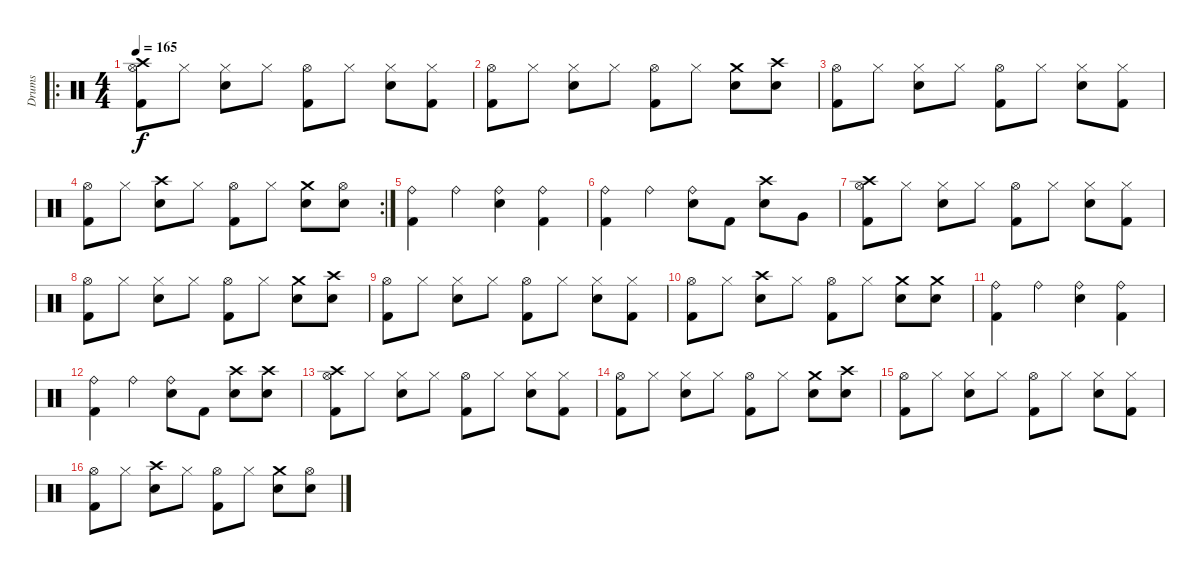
\track ("Drums" "Drums") {instrument percussion}
\staff {score}
\articulation defaults
\ro
\ts (4 4)
\tempo 165
\clef neutral
\ks c
("Crash high (hit)" "Hi-Hat (open)" "Kick (hit) 2").8{dy f} "Hi-Hat (closed)".8 ("Hi-Hat (closed)" "Snare (hit) 2").8 "Hi-Hat (closed)".8 ("Hi-Hat (open)" "Kick (hit) 2").8 "Hi-Hat (closed)".8 ("Hi-Hat (closed)" "Snare (hit) 2").8 ("Hi-Hat (closed)" "Kick (hit) 2").8 |
("Hi-Hat (open)" "Kick (hit) 2").8 "Hi-Hat (closed)".8 ("Hi-Hat (closed)" "Snare (hit) 2").8 "Hi-Hat (closed)".8 ("Hi-Hat (open)" "Kick (hit) 2").8 "Hi-Hat (closed)".8 ("Crash medium (hit)" "Snare (hit) 2").8 ("Crash high (hit)" "Snare (hit) 2").8 |
("Hi-Hat (open)" "Kick (hit) 2").8 "Hi-Hat (closed)".8 ("Hi-Hat (closed)" "Snare (hit) 2").8 "Hi-Hat (closed)".8 ("Hi-Hat (open)" "Kick (hit) 2").8 "Hi-Hat (closed)".8 ("Hi-Hat (closed)" "Snare (hit) 2").8 ("Hi-Hat (closed)" "Kick (hit) 2").8 |
\rc 2
("Hi-Hat (open)" "Kick (hit) 2").8 "Hi-Hat (closed)".8 ("Crash high (hit)" "Snare (hit) 2").8 "Hi-Hat (closed)".8 ("Hi-Hat (open)" "Kick (hit) 2").8 "Hi-Hat (closed)".8 ("Crash medium (hit)" "Snare (hit) 2").8 ("Hi-Hat (open)" "Snare (hit) 2").8 |
("Ride (bell)" "Kick (hit) 2").4 "Ride (bell)".4 ("Ride (bell)" "Snare (hit) 2").4 ("Ride (bell)" "Kick (hit) 2").4 |
("Ride (bell)" "Kick (hit) 2").4 "Ride (bell)".4 ("Ride (bell)" "Snare (hit) 2").8 "Kick (hit) 2".8 ("Crash high (hit)" "Snare (hit) 2").8 "Very Low Tom (hit)".8 |
("Crash high (hit)" "Hi-Hat (open)" "Kick (hit) 2").8 "Hi-Hat (closed)".8 ("Hi-Hat (closed)" "Snare (hit) 2").8 "Hi-Hat (closed)".8 ("Hi-Hat (open)" "Kick (hit) 2").8 "Hi-Hat (closed)".8 ("Hi-Hat (closed)" "Snare (hit) 2").8 ("Hi-Hat (closed)" "Kick (hit) 2").8 |
("Hi-Hat (open)" "Kick (hit) 2").8 "Hi-Hat (closed)".8 ("Hi-Hat (closed)" "Snare (hit) 2").8 "Hi-Hat (closed)".8 ("Hi-Hat (open)" "Kick (hit) 2").8 "Hi-Hat (closed)".8 ("Crash medium (hit)" "Snare (hit) 2").8 ("Crash high (hit)" "Snare (hit) 2").8 |
("Hi-Hat (open)" "Kick (hit) 2").8 "Hi-Hat (closed)".8 ("Hi-Hat (closed)" "Snare (hit) 2").8 "Hi-Hat (closed)".8 ("Hi-Hat (open)" "Kick (hit) 2").8 "Hi-Hat (closed)".8 ("Hi-Hat (closed)" "Snare (hit) 2").8 ("Hi-Hat (closed)" "Kick (hit) 2").8 |
("Hi-Hat (open)" "Kick (hit) 2").8 "Hi-Hat (closed)".8 ("Crash high (hit)" "Snare (hit) 2").8 "Hi-Hat (closed)".8 ("Hi-Hat (open)" "Kick (hit) 2").8 "Hi-Hat (closed)".8 ("Crash medium (hit)" "Snare (hit) 2").8 ("Crash medium (hit)" "Snare (hit) 2").8 |
("Ride (bell)" "Kick (hit) 2").4 "Ride (bell)".4 ("Ride (bell)" "Snare (hit) 2").4 ("Ride (bell)" "Kick (hit) 2").4 |
("Ride (bell)" "Kick (hit) 2").4 "Ride (bell)".4 ("Ride (bell)" "Snare (hit) 2").8 "Kick (hit) 2".8 ("Crash high (hit)" "Snare (hit) 2").8 ("Crash high (hit)" "Snare (hit) 2").8 |
("Crash high (hit)" "Hi-Hat (open)" "Kick (hit) 2").8 "Hi-Hat (closed)".8 ("Hi-Hat (closed)" "Snare (hit) 2").8 "Hi-Hat (closed)".8 ("Hi-Hat (open)" "Kick (hit) 2").8 "Hi-Hat (closed)".8 ("Hi-Hat (closed)" "Snare (hit) 2").8 ("Hi-Hat (closed)" "Kick (hit) 2").8 |
("Hi-Hat (open)" "Kick (hit) 2").8 "Hi-Hat (closed)".8 ("Hi-Hat (closed)" "Snare (hit) 2").8 "Hi-Hat (closed)".8 ("Hi-Hat (open)" "Kick (hit) 2").8 "Hi-Hat (closed)".8 ("Crash medium (hit)" "Snare (hit) 2").8 ("Crash high (hit)" "Snare (hit) 2").8 |
("Hi-Hat (open)" "Kick (hit) 2").8 "Hi-Hat (closed)".8 ("Hi-Hat (closed)" "Snare (hit) 2").8 "Hi-Hat (closed)".8 ("Hi-Hat (open)" "Kick (hit) 2").8 "Hi-Hat (closed)".8 ("Hi-Hat (closed)" "Snare (hit) 2").8 ("Hi-Hat (closed)" "Kick (hit) 2").8 |
("Hi-Hat (open)" "Kick (hit) 2").8 "Hi-Hat (closed)".8 ("Crash high (hit)" "Snare (hit) 2").8 "Hi-Hat (closed)".8 ("Hi-Hat (open)" "Kick (hit) 2").8 "Hi-Hat (closed)".8 ("Crash medium (hit)" "Snare (hit) 2").8 ("Hi-Hat (open)" "Snare (hit) 2").8
